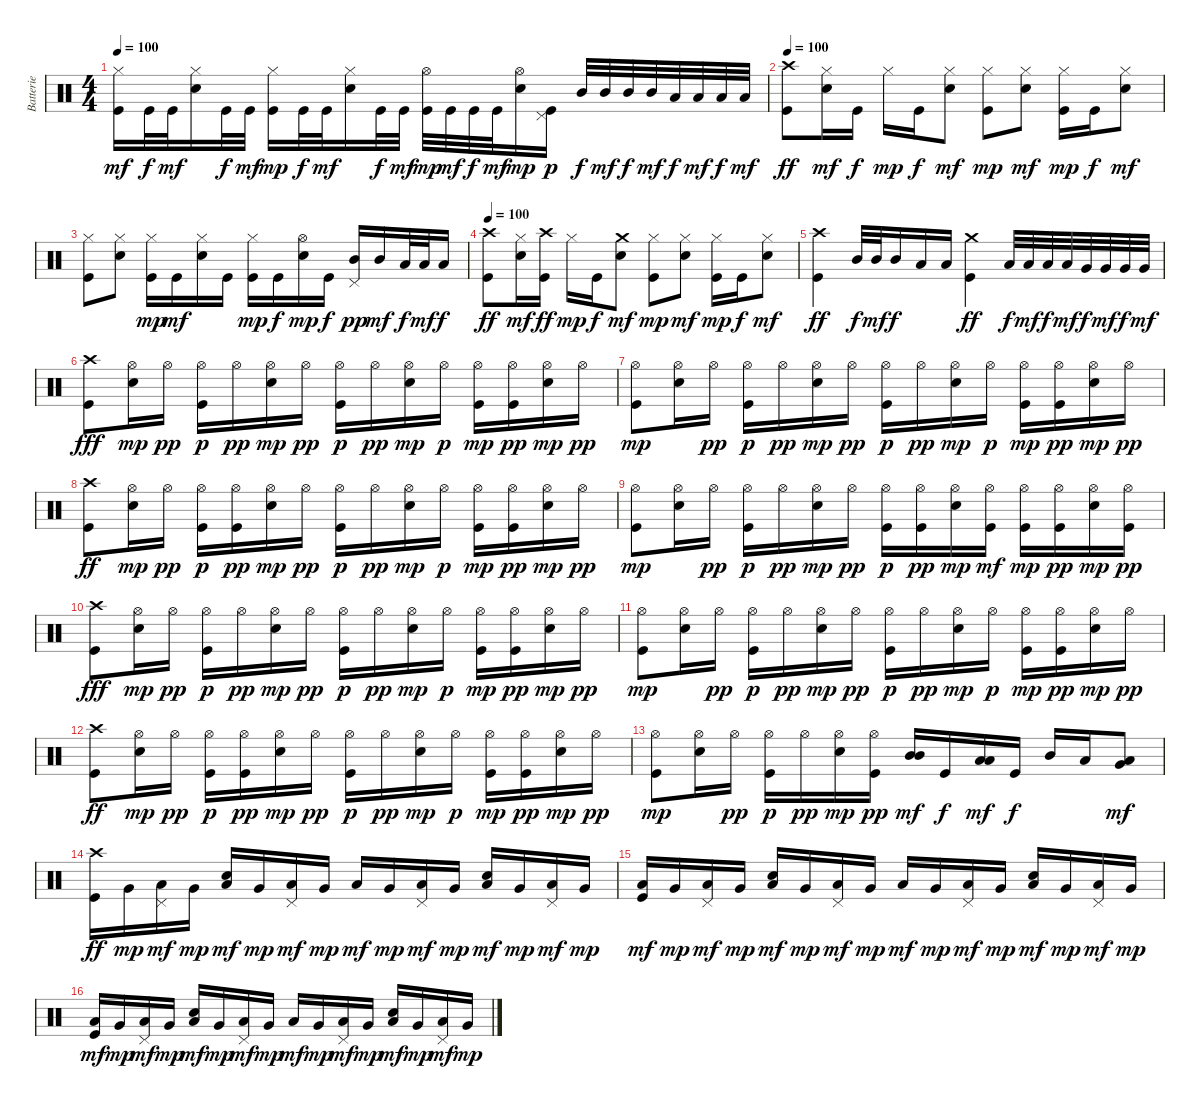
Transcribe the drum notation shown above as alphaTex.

\track ("Batterie" "Batterie") {instrument percussion}
\staff {score}
\articulation defaults
\ts (4 4)
\tempo 100
\clef neutral
\ks c
("Hi-Hat (closed)" "Kick (hit)").16{dy mf} "Kick (hit)".32{dy f} "Kick (hit)".32{dy mf} ("Hi-Hat (closed)" "Snare (hit) 2").16 "Kick (hit)".32{dy f} "Kick (hit)".32{dy mf} ("Hi-Hat (closed)" "Kick (hit)").16{dy mp} "Kick (hit)".32{dy f} "Kick (hit)".32{dy mf} ("Hi-Hat (closed)" "Snare (hit) 2").16 "Kick (hit)".32{dy f} "Kick (hit)".32{dy mf} ("Hi-Hat (open)" "Kick (hit)").32{dy mp} "Kick (hit)".32{dy mf} "Kick (hit)".32{dy f} "Kick (hit)".32{dy mf} ("Hi-Hat (open)" "Snare (hit) 2").16{dy mp} ("Pedal Hi-Hat (hit)" "Kick (hit)").16{dy p} "Mid Tom (hit)".32{dy f} "Mid Tom (hit)".32{dy mf} "Mid Tom (hit)".32{dy f} "Mid Tom (hit)".32{dy mf} "Low Tom (hit)".32{dy f} "Low Tom (hit)".32{dy mf} "Low Tom (hit)".32{dy f} "Low Tom (hit)".32{dy mf} |
\tempo 100
("Crash high (hit)" "Kick (hit)").8{dy ff} ("Hi-Hat (closed)" "Snare (hit) 2").16{dy mf} "Kick (hit)".16{dy f} "Hi-Hat (closed)".16{dy mp} "Kick (hit)".16{dy f} ("Hi-Hat (closed)" "Snare (hit) 2").8{dy mf} ("Hi-Hat (closed)" "Kick (hit)").8{dy mp} ("Hi-Hat (closed)" "Snare (hit) 2").8{dy mf} ("Hi-Hat (closed)" "Kick (hit)").16{dy mp} "Kick (hit)".16{dy f} ("Hi-Hat (closed)" "Snare (hit) 2").8{dy mf} |
("Hi-Hat (closed)" "Kick (hit)").8 ("Hi-Hat (closed)" "Snare (hit) 2").8 ("Hi-Hat (closed)" "Kick (hit)").16{dy mp} "Kick (hit)".16{dy mf} ("Hi-Hat (closed)" "Snare (hit) 2").16 "Kick (hit)".16 ("Hi-Hat (closed)" "Kick (hit)").16{dy mp} "Kick (hit)".16{dy f} ("Hi-Hat (open)" "Snare (hit) 2").16{dy mp} "Kick (hit)".16{dy f} ("Pedal Hi-Hat (hit)" "Mid Tom (hit)").16{dy pp} "Mid Tom (hit)".16{dy mf} "Low Tom (hit)".32{dy f} "Low Tom (hit)".32{dy mf} "Low Tom (hit)".16{dy f} |
\tempo 100
("Crash high (hit)" "Kick (hit)").8{dy ff} ("Hi-Hat (closed)" "Snare (hit) 2").16{dy mf} ("Crash high (hit)" "Kick (hit)").16{dy ff} "Hi-Hat (closed)".16{dy mp} "Kick (hit)".16{dy f} ("Crash medium (hit)" "Snare (hit) 2").8{dy mf} ("Hi-Hat (closed)" "Kick (hit)").8{dy mp} ("Hi-Hat (closed)" "Snare (hit) 2").8{dy mf} ("Hi-Hat (closed)" "Kick (hit)").16{dy mp} "Kick (hit)".16{dy f} ("Hi-Hat (closed)" "Snare (hit) 2").8{dy mf} |
("Crash high (hit)" "Kick (hit)").4{dy ff} "Mid Tom (hit)".32{dy f} "Mid Tom (hit)".32{dy mf} "Mid Tom (hit)".16{dy f} "Low Tom (hit)".16 "Low Tom (hit)".16 ("Crash medium (hit)" "Kick (hit)").4{dy ff} "Low Tom (hit)".32{dy f} "Low Tom (hit)".32{dy mf} "Low Tom (hit)".32{dy f} "Low Tom (hit)".32{dy mf} "Very Low Tom (hit)".32{dy f} "Very Low Tom (hit)".32{dy mf} "Very Low Tom (hit)".32{dy f} "Very Low Tom (hit)".32{dy mf} |
("Crash high (hit)" "Kick (hit)").8{dy fff} ("Hi-Hat (open)" "Snare (hit) 2").16{dy mp} "Hi-Hat (open)".16{dy pp} ("Hi-Hat (open)" "Kick (hit)").16{dy p} "Hi-Hat (open)".16{dy pp} ("Hi-Hat (open)" "Snare (hit) 2").16{dy mp} "Hi-Hat (open)".16{dy pp} ("Hi-Hat (open)" "Kick (hit)").16{dy p} "Hi-Hat (open)".16{dy pp} ("Hi-Hat (open)" "Snare (hit) 2").16{dy mp} "Hi-Hat (open)".16{dy p} ("Hi-Hat (open)" "Kick (hit)").16{dy mp} ("Hi-Hat (open)" "Kick (hit)").16{dy pp} ("Hi-Hat (open)" "Snare (hit) 2").16{dy mp} "Hi-Hat (open)".16{dy pp} |
("Hi-Hat (open)" "Kick (hit)").8{dy mp} ("Hi-Hat (open)" "Snare (hit) 2").16 "Hi-Hat (open)".16{dy pp} ("Hi-Hat (open)" "Kick (hit)").16{dy p} "Hi-Hat (open)".16{dy pp} ("Hi-Hat (open)" "Snare (hit) 2").16{dy mp} "Hi-Hat (open)".16{dy pp} ("Hi-Hat (open)" "Kick (hit)").16{dy p} "Hi-Hat (open)".16{dy pp} ("Hi-Hat (open)" "Snare (hit) 2").16{dy mp} "Hi-Hat (open)".16{dy p} ("Hi-Hat (open)" "Kick (hit)").16{dy mp} ("Hi-Hat (open)" "Kick (hit)").16{dy pp} ("Hi-Hat (open)" "Snare (hit) 2").16{dy mp} "Hi-Hat (open)".16{dy pp} |
("Crash high (hit)" "Kick (hit)").8{dy ff} ("Hi-Hat (open)" "Snare (hit) 2").16{dy mp} "Hi-Hat (open)".16{dy pp} ("Hi-Hat (open)" "Kick (hit)").16{dy p} ("Hi-Hat (open)" "Kick (hit)").16{dy pp} ("Hi-Hat (open)" "Snare (hit) 2").16{dy mp} "Hi-Hat (open)".16{dy pp} ("Hi-Hat (open)" "Kick (hit)").16{dy p} "Hi-Hat (open)".16{dy pp} ("Hi-Hat (open)" "Snare (hit) 2").16{dy mp} "Hi-Hat (open)".16{dy p} ("Hi-Hat (open)" "Kick (hit)").16{dy mp} ("Hi-Hat (open)" "Kick (hit)").16{dy pp} ("Hi-Hat (open)" "Snare (hit) 2").16{dy mp} "Hi-Hat (open)".16{dy pp} |
("Hi-Hat (open)" "Kick (hit)").8{dy mp} ("Hi-Hat (open)" "Snare (hit) 2").16 "Hi-Hat (open)".16{dy pp} ("Hi-Hat (open)" "Kick (hit)").16{dy p} "Hi-Hat (open)".16{dy pp} ("Hi-Hat (open)" "Snare (hit) 2").16{dy mp} "Hi-Hat (open)".16{dy pp} ("Hi-Hat (open)" "Kick (hit)").16{dy p} ("Hi-Hat (open)" "Kick (hit)").16{dy pp} ("Hi-Hat (open)" "Snare (hit) 2").16{dy mp} ("Hi-Hat (open)" "Kick (hit)").16{dy mf} ("Hi-Hat (open)" "Kick (hit)").16{dy mp} ("Hi-Hat (open)" "Kick (hit)").16{dy pp} ("Hi-Hat (open)" "Snare (hit) 2").16{dy mp} ("Hi-Hat (open)" "Kick (hit)").16{dy pp} |
("Crash high (hit)" "Kick (hit)").8{dy fff} ("Hi-Hat (open)" "Snare (hit) 2").16{dy mp} "Hi-Hat (open)".16{dy pp} ("Hi-Hat (open)" "Kick (hit)").16{dy p} "Hi-Hat (open)".16{dy pp} ("Hi-Hat (open)" "Snare (hit) 2").16{dy mp} "Hi-Hat (open)".16{dy pp} ("Hi-Hat (open)" "Kick (hit)").16{dy p} "Hi-Hat (open)".16{dy pp} ("Hi-Hat (open)" "Snare (hit) 2").16{dy mp} "Hi-Hat (open)".16{dy p} ("Hi-Hat (open)" "Kick (hit)").16{dy mp} ("Hi-Hat (open)" "Kick (hit)").16{dy pp} ("Hi-Hat (open)" "Snare (hit) 2").16{dy mp} "Hi-Hat (open)".16{dy pp} |
("Hi-Hat (open)" "Kick (hit)").8{dy mp} ("Hi-Hat (open)" "Snare (hit) 2").16 "Hi-Hat (open)".16{dy pp} ("Hi-Hat (open)" "Kick (hit)").16{dy p} "Hi-Hat (open)".16{dy pp} ("Hi-Hat (open)" "Snare (hit) 2").16{dy mp} "Hi-Hat (open)".16{dy pp} ("Hi-Hat (open)" "Kick (hit)").16{dy p} "Hi-Hat (open)".16{dy pp} ("Hi-Hat (open)" "Snare (hit) 2").16{dy mp} "Hi-Hat (open)".16{dy p} ("Hi-Hat (open)" "Kick (hit)").16{dy mp} ("Hi-Hat (open)" "Kick (hit)").16{dy pp} ("Hi-Hat (open)" "Snare (hit) 2").16{dy mp} "Hi-Hat (open)".16{dy pp} |
("Crash high (hit)" "Kick (hit)").8{dy ff} ("Hi-Hat (open)" "Snare (hit) 2").16{dy mp} "Hi-Hat (open)".16{dy pp} ("Hi-Hat (open)" "Kick (hit)").16{dy p} ("Hi-Hat (open)" "Kick (hit)").16{dy pp} ("Hi-Hat (open)" "Snare (hit) 2").16{dy mp} "Hi-Hat (open)".16{dy pp} ("Hi-Hat (open)" "Kick (hit)").16{dy p} "Hi-Hat (open)".16{dy pp} ("Hi-Hat (open)" "Snare (hit) 2").16{dy mp} "Hi-Hat (open)".16{dy p} ("Hi-Hat (open)" "Kick (hit)").16{dy mp} ("Hi-Hat (open)" "Kick (hit)").16{dy pp} ("Hi-Hat (open)" "Snare (hit) 2").16{dy mp} "Hi-Hat (open)".16{dy pp} |
("Hi-Hat (open)" "Kick (hit)").8{dy mp} ("Hi-Hat (open)" "Snare (hit) 2").16 "Hi-Hat (open)".16{dy pp} ("Hi-Hat (open)" "Kick (hit)").16{dy p} "Hi-Hat (open)".16{dy pp} ("Hi-Hat (open)" "Snare (hit) 2").16{dy mp} ("Hi-Hat (open)" "Kick (hit)").16{dy pp} ("Mid Tom (hit)" "Mid Tom (hit)").16{bd 60 dy mf} "Kick (hit)".16{dy f} ("Low Tom (hit)" "Low Tom (hit)").16{bd 60 dy mf} "Kick (hit)".16{dy f} "Mid Tom (hit)".16 "Low Tom (hit)".16 ("Low Tom (hit)" "Very Low Tom (hit)").8{bd 60 dy mf} |
("Crash high (hit)" "Kick (hit)").16{dy ff} "Very Low Tom (hit)".16{dy mp} ("Pedal Hi-Hat (hit)" "Low Tom (hit)").16{dy mf} "Very Low Tom (hit)".16{dy mp} ("Snare (hit) 2" "Low Floor Tom (hit)").16{dy mf} "Very Low Tom (hit)".16{dy mp} ("Pedal Hi-Hat (hit)" "Low Tom (hit)").16{dy mf} "Very Low Tom (hit)".16{dy mp} "Low Floor Tom (hit)".16{dy mf} "Very Low Tom (hit)".16{dy mp} ("Pedal Hi-Hat (hit)" "Low Tom (hit)").16{dy mf} "Very Low Tom (hit)".16{dy mp} ("Snare (hit) 2" "Low Floor Tom (hit)").16{dy mf} "Very Low Tom (hit)".16{dy mp} ("Pedal Hi-Hat (hit)" "Low Tom (hit)").16{dy mf} "Very Low Tom (hit)".16{dy mp} |
("Low Tom (hit)" "Kick (hit)").16{dy mf} "Very Low Tom (hit)".16{dy mp} ("Pedal Hi-Hat (hit)" "Low Tom (hit)").16{dy mf} "Very Low Tom (hit)".16{dy mp} ("Snare (hit) 2" "Low Floor Tom (hit)").16{dy mf} "Very Low Tom (hit)".16{dy mp} ("Pedal Hi-Hat (hit)" "Low Tom (hit)").16{dy mf} "Very Low Tom (hit)".16{dy mp} "Low Floor Tom (hit)".16{dy mf} "Very Low Tom (hit)".16{dy mp} ("Pedal Hi-Hat (hit)" "Low Tom (hit)").16{dy mf} "Very Low Tom (hit)".16{dy mp} ("Snare (hit) 2" "Low Floor Tom (hit)").16{dy mf} "Very Low Tom (hit)".16{dy mp} ("Pedal Hi-Hat (hit)" "Low Tom (hit)").16{dy mf} "Very Low Tom (hit)".16{dy mp} |
("Low Tom (hit)" "Kick (hit)").16{dy mf} "Very Low Tom (hit)".16{dy mp} ("Pedal Hi-Hat (hit)" "Low Tom (hit)").16{dy mf} "Very Low Tom (hit)".16{dy mp} ("Snare (hit) 2" "Low Floor Tom (hit)").16{dy mf} "Very Low Tom (hit)".16{dy mp} ("Pedal Hi-Hat (hit)" "Low Tom (hit)").16{dy mf} "Very Low Tom (hit)".16{dy mp} "Low Floor Tom (hit)".16{dy mf} "Very Low Tom (hit)".16{dy mp} ("Pedal Hi-Hat (hit)" "Low Tom (hit)").16{dy mf} "Very Low Tom (hit)".16{dy mp} ("Snare (hit) 2" "Low Floor Tom (hit)").16{dy mf} "Very Low Tom (hit)".16{dy mp} ("Pedal Hi-Hat (hit)" "Low Tom (hit)").16{dy mf} "Very Low Tom (hit)".16{dy mp}
